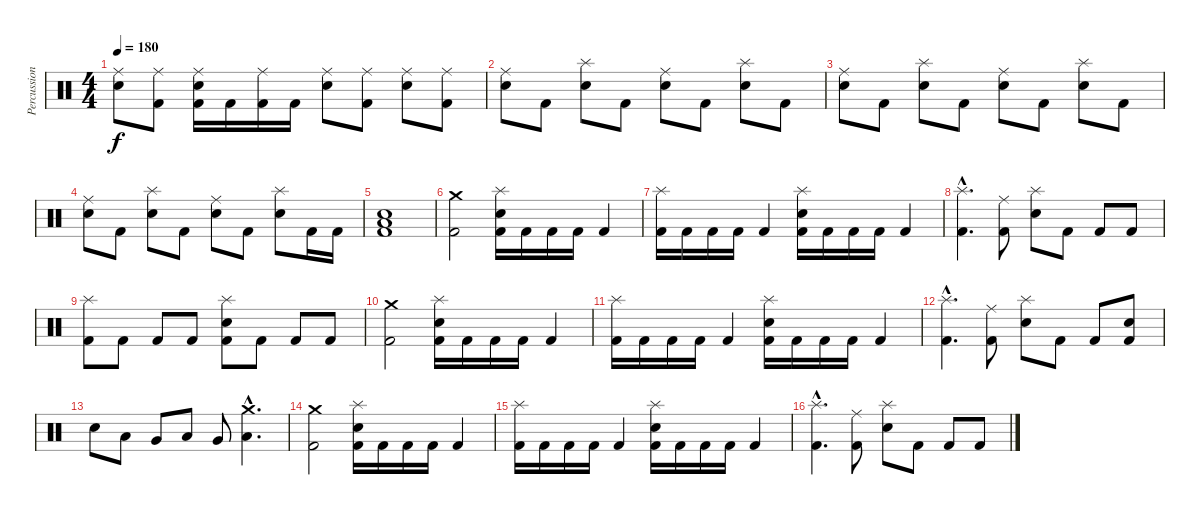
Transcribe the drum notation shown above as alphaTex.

\track ("Percussion" "Percussion") {instrument percussion}
\staff {score}
\articulation defaults
\ts (4 4)
\tempo 180
\clef neutral
\ks c
("Ride (middle)" "Electric Snare (hit)").8{dy f} ("Ride (middle)" "Kick (hit) 2").8 ("Ride (middle)" "Electric Snare (hit)" "Kick (hit) 2").16 "Kick (hit) 2".16 ("Ride (middle)" "Kick (hit) 2").16 "Kick (hit) 2".16 ("Ride (middle)" "Electric Snare (hit)").8 ("Ride (middle)" "Kick (hit) 2").8 ("Ride (middle)" "Electric Snare (hit)").8 ("Ride (middle)" "Kick (hit) 2").8 |
("Ride (middle)" "Electric Snare (hit)").8 "Kick (hit) 2".8 ("Splash (hit)" "Electric Snare (hit)").8 "Kick (hit) 2".8 ("Ride (middle)" "Electric Snare (hit)").8 "Kick (hit) 2".8 ("Splash (hit)" "Electric Snare (hit)").8 "Kick (hit) 2".8 |
("Ride (middle)" "Electric Snare (hit)").8 "Kick (hit) 2".8 ("Splash (hit)" "Electric Snare (hit)").8 "Kick (hit) 2".8 ("Ride (middle)" "Electric Snare (hit)").8 "Kick (hit) 2".8 ("Splash (hit)" "Electric Snare (hit)").8 "Kick (hit) 2".8 |
("Ride (middle)" "Electric Snare (hit)").8 "Kick (hit) 2".8 ("Splash (hit)" "Electric Snare (hit)").8 "Kick (hit) 2".8 ("Ride (middle)" "Electric Snare (hit)").8 "Kick (hit) 2".8 ("Splash (hit)" "Electric Snare (hit)").8 "Kick (hit) 2".16 "Kick (hit) 2".16 |
("Low Floor Tom (hit)" "Electric Snare (hit)" "Kick (hit) 2").1 |
("Crash medium (hit)" "Kick (hit) 2").2 ("Splash (hit)" "Electric Snare (hit)" "Kick (hit) 2").16 "Kick (hit) 2".16 "Kick (hit) 2".16 "Kick (hit) 2".16 "Kick (hit) 2".4 |
("Splash (hit)" "Kick (hit) 2").16 "Kick (hit) 2".16 "Kick (hit) 2".16 "Kick (hit) 2".16 "Kick (hit) 2".4 ("Splash (hit)" "Electric Snare (hit)" "Kick (hit) 2").16 "Kick (hit) 2".16 "Kick (hit) 2".16 "Kick (hit) 2".16 "Kick (hit) 2".4 |
("Splash (hit)"{hac} "Kick (hit) 2"{hac}).4{d} ("Ride (middle)" "Kick (hit) 2").8 ("Splash (hit)" "Electric Snare (hit)").8 "Kick (hit) 2".8 "Kick (hit) 2".8 "Kick (hit) 2".8 |
("Splash (hit)" "Kick (hit) 2").8 "Kick (hit) 2".8 "Kick (hit) 2".8 "Kick (hit) 2".8 ("Splash (hit)" "Electric Snare (hit)" "Kick (hit) 2").8 "Kick (hit) 2".8 "Kick (hit) 2".8 "Kick (hit) 2".8 |
("Crash medium (hit)" "Kick (hit) 2").2 ("Splash (hit)" "Electric Snare (hit)" "Kick (hit) 2").16 "Kick (hit) 2".16 "Kick (hit) 2".16 "Kick (hit) 2".16 "Kick (hit) 2".4 |
("Splash (hit)" "Kick (hit) 2").16 "Kick (hit) 2".16 "Kick (hit) 2".16 "Kick (hit) 2".16 "Kick (hit) 2".4 ("Splash (hit)" "Electric Snare (hit)" "Kick (hit) 2").16 "Kick (hit) 2".16 "Kick (hit) 2".16 "Kick (hit) 2".16 "Kick (hit) 2".4 |
("Splash (hit)"{hac} "Kick (hit) 2"{hac}).4{d} ("Ride (middle)" "Kick (hit) 2").8 ("Splash (hit)" "Electric Snare (hit)").8 "Kick (hit) 2".8 "Kick (hit) 2".8 ("Electric Snare (hit)" "Kick (hit) 2").8 |
"Electric Snare (hit)".8 "Low Tom (hit)".8 "Very Low Tom (hit)".8 "Low Floor Tom (hit)".8 "Very Low Tom (hit)".8 ("Crash medium (hit)"{hac} "Low Floor Tom (hit)"{hac}).4{d} |
("Crash medium (hit)" "Kick (hit) 2").2 ("Splash (hit)" "Electric Snare (hit)" "Kick (hit) 2").16 "Kick (hit) 2".16 "Kick (hit) 2".16 "Kick (hit) 2".16 "Kick (hit) 2".4 |
("Splash (hit)" "Kick (hit) 2").16 "Kick (hit) 2".16 "Kick (hit) 2".16 "Kick (hit) 2".16 "Kick (hit) 2".4 ("Splash (hit)" "Electric Snare (hit)" "Kick (hit) 2").16 "Kick (hit) 2".16 "Kick (hit) 2".16 "Kick (hit) 2".16 "Kick (hit) 2".4 |
("Splash (hit)"{hac} "Kick (hit) 2"{hac}).4{d} ("Ride (middle)" "Kick (hit) 2").8 ("Splash (hit)" "Electric Snare (hit)").8 "Kick (hit) 2".8 "Kick (hit) 2".8 "Kick (hit) 2".8
